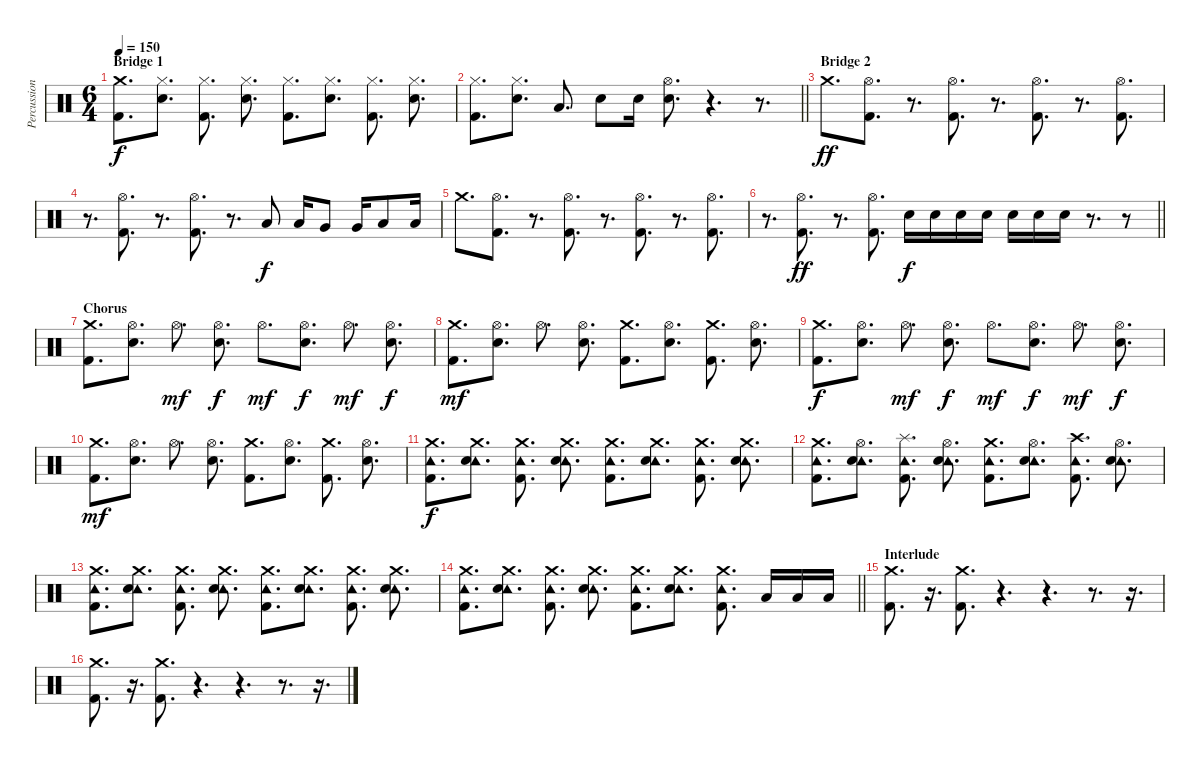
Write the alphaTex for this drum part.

\track ("Percussion" "Percussion") {solo instrument percussion}
\staff {score}
\articulation defaults
\ts (6 4)
\section ("" "Bridge 1")
\tempo 150
\clef neutral
\ks c
("Crash medium (hit)" "Kick (hit) 2").8{d dy f} ("Hi-Hat (closed)" "Electric Snare (hit)").8{d} ("Hi-Hat (closed)" "Kick (hit) 2").8{d} ("Hi-Hat (closed)" "Electric Snare (hit)").8{d} ("Hi-Hat (closed)" "Kick (hit) 2").8{d} ("Hi-Hat (closed)" "Electric Snare (hit)").8{d} ("Hi-Hat (closed)" "Kick (hit) 2").8{d} ("Hi-Hat (closed)" "Electric Snare (hit)").8{d} |
\barLineRight lightlight
("Hi-Hat (closed)" "Kick (hit) 2").8{d} ("Hi-Hat (closed)" "Electric Snare (hit)").8{d} "Low Tom (hit)".8{d} "Electric Snare (hit)".8 "Electric Snare (hit)".16 ("Hi-Hat (open)" "Electric Snare (hit)").8{d} r.4{d} r.8{d} |
\section ("" "Bridge 2")
"Crash medium (hit)".8{d dy ff} ("Hi-Hat (open)" "Kick (hit) 2").8{d} r.8{d} ("Hi-Hat (open)" "Kick (hit) 2").8{d} r.8{d} ("Hi-Hat (open)" "Kick (hit) 2").8{d} r.8{d} ("Hi-Hat (open)" "Kick (hit) 2").8{d} |
r.8{d} ("Hi-Hat (open)" "Kick (hit) 2").8{d} r.8{d} ("Hi-Hat (open)" "Kick (hit) 2").8{d} r.8{d} "Low Tom (hit)".8{dy f} "Low Tom (hit)".16 "Very Low Tom (hit)".8 "Very Low Tom (hit)".16 "Low Floor Tom (hit)".8 "Low Floor Tom (hit)".16 |
"Crash medium (hit)".8{d} ("Hi-Hat (open)" "Kick (hit) 2").8{d} r.8{d} ("Hi-Hat (open)" "Kick (hit) 2").8{d} r.8{d} ("Hi-Hat (open)" "Kick (hit) 2").8{d} r.8{d} ("Hi-Hat (open)" "Kick (hit) 2").8{d} |
\barLineRight lightlight
r.8{d} ("Hi-Hat (open)" "Kick (hit) 2").8{d dy ff} r.8{d} ("Hi-Hat (open)" "Kick (hit) 2").8{d} "Electric Snare (hit)".16{dy f} "Electric Snare (hit)".16 "Electric Snare (hit)".16 "Electric Snare (hit)".16 "Electric Snare (hit)".16 "Electric Snare (hit)".16 "Electric Snare (hit)".16 r.8{d} r.8 |
\section ("" "Chorus")
("Crash medium (hit)" "Kick (hit) 2").8{d} ("Hi-Hat (open)" "Electric Snare (hit)").8{d} "Hi-Hat (open)".8{d dy mf} ("Hi-Hat (open)" "Electric Snare (hit)").8{d dy f} "Hi-Hat (open)".8{d dy mf} ("Hi-Hat (open)" "Electric Snare (hit)").8{d dy f} "Hi-Hat (open)".8{d dy mf} ("Hi-Hat (open)" "Electric Snare (hit)").8{d dy f} |
("Crash medium (hit)" "Kick (hit) 2").8{d dy mf} ("Hi-Hat (open)" "Electric Snare (hit)").8{d} "Hi-Hat (open)".8{d} ("Hi-Hat (open)" "Electric Snare (hit)").8{d} ("Crash medium (hit)" "Kick (hit) 2").8{d} ("Hi-Hat (open)" "Electric Snare (hit)").8{d} ("Crash medium (hit)" "Kick (hit) 2").8{d} ("Hi-Hat (open)" "Electric Snare (hit)").8{d} |
("Crash medium (hit)" "Kick (hit) 2").8{d dy f} ("Hi-Hat (open)" "Electric Snare (hit)").8{d} "Hi-Hat (open)".8{d dy mf} ("Hi-Hat (open)" "Electric Snare (hit)").8{d dy f} "Hi-Hat (open)".8{d dy mf} ("Hi-Hat (open)" "Electric Snare (hit)").8{d dy f} "Hi-Hat (open)".8{d dy mf} ("Hi-Hat (open)" "Electric Snare (hit)").8{d dy f} |
("Crash medium (hit)" "Kick (hit) 2").8{d dy mf} ("Hi-Hat (open)" "Electric Snare (hit)").8{d} "Hi-Hat (open)".8{d} ("Hi-Hat (open)" "Electric Snare (hit)").8{d} ("Crash medium (hit)" "Kick (hit) 2").8{d} ("Hi-Hat (open)" "Electric Snare (hit)").8{d} ("Crash medium (hit)" "Kick (hit) 2").8{d} ("Hi-Hat (open)" "Electric Snare (hit)").8{d} |
("Tambourine (hit)" "Crash medium (hit)" "Kick (hit) 2").8{d dy f} ("Tambourine (hit)" "Crash medium (hit)" "Electric Snare (hit)").8{d} ("Tambourine (hit)" "Crash medium (hit)" "Kick (hit) 2").8{d} ("Tambourine (hit)" "Crash medium (hit)" "Electric Snare (hit)").8{d} ("Tambourine (hit)" "Crash medium (hit)" "Kick (hit) 2").8{d} ("Tambourine (hit)" "Crash medium (hit)" "Electric Snare (hit)").8{d} ("Tambourine (hit)" "Crash medium (hit)" "Kick (hit) 2").8{d} ("Tambourine (hit)" "Crash medium (hit)" "Electric Snare (hit)").8{d} |
("Tambourine (hit)" "Crash medium (hit)" "Kick (hit) 2").8{d} ("Tambourine (hit)" "Hi-Hat (open)" "Electric Snare (hit)").8{d} ("Tambourine (hit)" "Splash (hit)" "Kick (hit) 2").8{d} ("Tambourine (hit)" "Hi-Hat (open)" "Electric Snare (hit)").8{d} ("Tambourine (hit)" "Crash medium (hit)" "Kick (hit) 2").8{d} ("Tambourine (hit)" "Hi-Hat (open)" "Electric Snare (hit)").8{d} ("Tambourine (hit)" "Crash high (hit)" "Kick (hit) 2").8{d} ("Tambourine (hit)" "Hi-Hat (open)" "Electric Snare (hit)").8{d} |
("Tambourine (hit)" "Crash medium (hit)" "Kick (hit) 2").8{d} ("Tambourine (hit)" "Crash medium (hit)" "Electric Snare (hit)").8{d} ("Tambourine (hit)" "Crash medium (hit)" "Kick (hit) 2").8{d} ("Tambourine (hit)" "Crash medium (hit)" "Electric Snare (hit)").8{d} ("Tambourine (hit)" "Crash medium (hit)" "Kick (hit) 2").8{d} ("Tambourine (hit)" "Crash medium (hit)" "Electric Snare (hit)").8{d} ("Tambourine (hit)" "Crash medium (hit)" "Kick (hit) 2").8{d} ("Tambourine (hit)" "Crash medium (hit)" "Electric Snare (hit)").8{d} |
\barLineRight lightlight
("Tambourine (hit)" "Crash medium (hit)" "Kick (hit) 2").8{d} ("Tambourine (hit)" "Crash medium (hit)" "Electric Snare (hit)").8{d} ("Tambourine (hit)" "Crash medium (hit)" "Kick (hit) 2").8{d} ("Tambourine (hit)" "Crash medium (hit)" "Electric Snare (hit)").8{d} ("Tambourine (hit)" "Crash medium (hit)" "Kick (hit) 2").8{d} ("Tambourine (hit)" "Crash medium (hit)" "Electric Snare (hit)").8{d} ("Tambourine (hit)" "Crash medium (hit)" "Kick (hit) 2").8{d} "Low Tom (hit)".16 "Low Tom (hit)".16 "Low Floor Tom (hit)".16 |
\section ("" "Interlude")
("Crash medium (hit)" "Kick (hit) 2").8{d} r.16{d} ("Crash medium (hit)" "Kick (hit) 2").8{d} r.4{d} r.4{d} r.8{d} r.16{d} |
("Crash medium (hit)" "Kick (hit) 2").8{d} r.16{d} ("Crash medium (hit)" "Kick (hit) 2").8{d} r.4{d} r.4{d} r.8{d} r.16{d}
